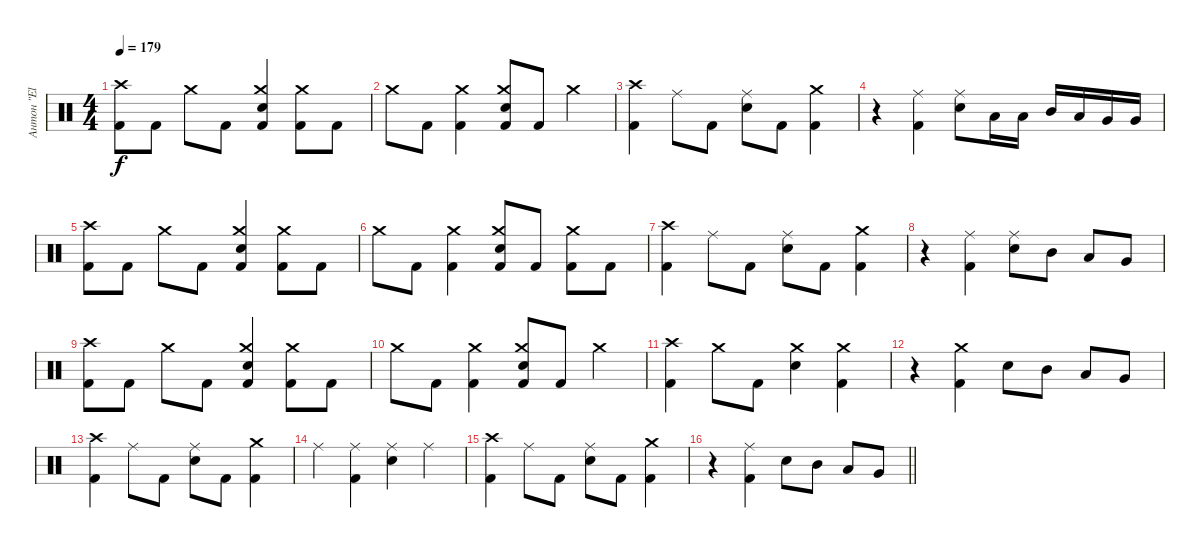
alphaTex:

\track ("Антон \"El Bastardo\" Смольянин" "Антон \"El ") {instrument percussion}
\staff {score}
\articulation defaults
\ts (4 4)
\tempo 179
\clef neutral
\ks c
("Crash high (hit)" "Kick (hit) 2").8{dy f} "Kick (hit) 2".8 "Crash medium (hit)".8 "Kick (hit) 2".8 ("Crash medium (hit)" "Electric Snare (hit)" "Kick (hit) 2").4 ("Crash medium (hit)" "Kick (hit) 2").8 "Kick (hit) 2".8 |
"Crash medium (hit)".8 "Kick (hit) 2".8 ("Crash medium (hit)" "Kick (hit) 2").4 ("Crash medium (hit)" "Electric Snare (hit)" "Kick (hit) 2").8 "Kick (hit) 2".8 "Crash medium (hit)".4 |
("Crash high (hit)" "Kick (hit) 2").4 "Ride (middle)".8 "Kick (hit) 2".8 ("Ride (middle)" "Electric Snare (hit)").8 "Kick (hit) 2".8 ("Crash medium (hit)" "Kick (hit) 2").4 |
r.4 ("Ride (middle)" "Kick (hit) 2").4 ("Ride (middle)" "Electric Snare (hit)").8 "Low Tom (hit)".16 "Low Tom (hit)".16 "Mid Tom (hit)".16 "Low Tom (hit)".16 "Very Low Tom (hit)".16 "Very Low Tom (hit)".16 |
("Crash high (hit)" "Kick (hit) 2").8 "Kick (hit) 2".8 "Crash medium (hit)".8 "Kick (hit) 2".8 ("Crash medium (hit)" "Electric Snare (hit)" "Kick (hit) 2").4 ("Crash medium (hit)" "Kick (hit) 2").8 "Kick (hit) 2".8 |
"Crash medium (hit)".8 "Kick (hit) 2".8 ("Crash medium (hit)" "Kick (hit) 2").4 ("Crash medium (hit)" "Electric Snare (hit)" "Kick (hit) 2").8 "Kick (hit) 2".8 ("Crash medium (hit)" "Kick (hit) 2").8 "Kick (hit) 2".8 |
("Crash high (hit)" "Kick (hit) 2").4 "Ride (middle)".8 "Kick (hit) 2".8 ("Ride (middle)" "Electric Snare (hit)").8 "Kick (hit) 2".8 ("Crash medium (hit)" "Kick (hit) 2").4 |
r.4 ("Ride (middle)" "Kick (hit) 2").4 ("Ride (middle)" "Electric Snare (hit)").8 "Mid Tom (hit)".8 "Low Tom (hit)".8 "Very Low Tom (hit)".8 |
("Crash high (hit)" "Kick (hit) 2").8 "Kick (hit) 2".8 "Crash medium (hit)".8 "Kick (hit) 2".8 ("Crash medium (hit)" "Electric Snare (hit)" "Kick (hit) 2").4 ("Crash medium (hit)" "Kick (hit) 2").8 "Kick (hit) 2".8 |
"Crash medium (hit)".8 "Kick (hit) 2".8 ("Crash medium (hit)" "Kick (hit) 2").4 ("Crash medium (hit)" "Electric Snare (hit)" "Kick (hit) 2").8 "Kick (hit) 2".8 "Crash medium (hit)".4 |
("Crash high (hit)" "Kick (hit) 2").4 "Crash medium (hit)".8 "Kick (hit) 2".8 ("Crash medium (hit)" "Electric Snare (hit)").4 ("Crash medium (hit)" "Kick (hit) 2").4 |
r.4 ("Crash medium (hit)" "Kick (hit) 2").4 "Electric Snare (hit)".8 "Mid Tom (hit)".8 "Low Tom (hit)".8 "Very Low Tom (hit)".8 |
("Crash high (hit)" "Kick (hit) 2").4 "Ride (middle)".8 "Kick (hit) 2".8 ("Ride (middle)" "Electric Snare (hit)").8 "Kick (hit) 2".8 ("Crash medium (hit)" "Kick (hit) 2").4 |
"Ride (middle)".4 ("Ride (middle)" "Kick (hit) 2").4 ("Ride (middle)" "Electric Snare (hit)").4 "Ride (middle)".4 |
("Crash high (hit)" "Kick (hit) 2").4 "Ride (middle)".8 "Kick (hit) 2".8 ("Ride (middle)" "Electric Snare (hit)").8 "Kick (hit) 2".8 ("Crash medium (hit)" "Kick (hit) 2").4 |
\barLineRight lightlight
r.4 ("Ride (middle)" "Kick (hit) 2").4 "Electric Snare (hit)".8 "Mid Tom (hit)".8 "Low Tom (hit)".8 "Very Low Tom (hit)".8
